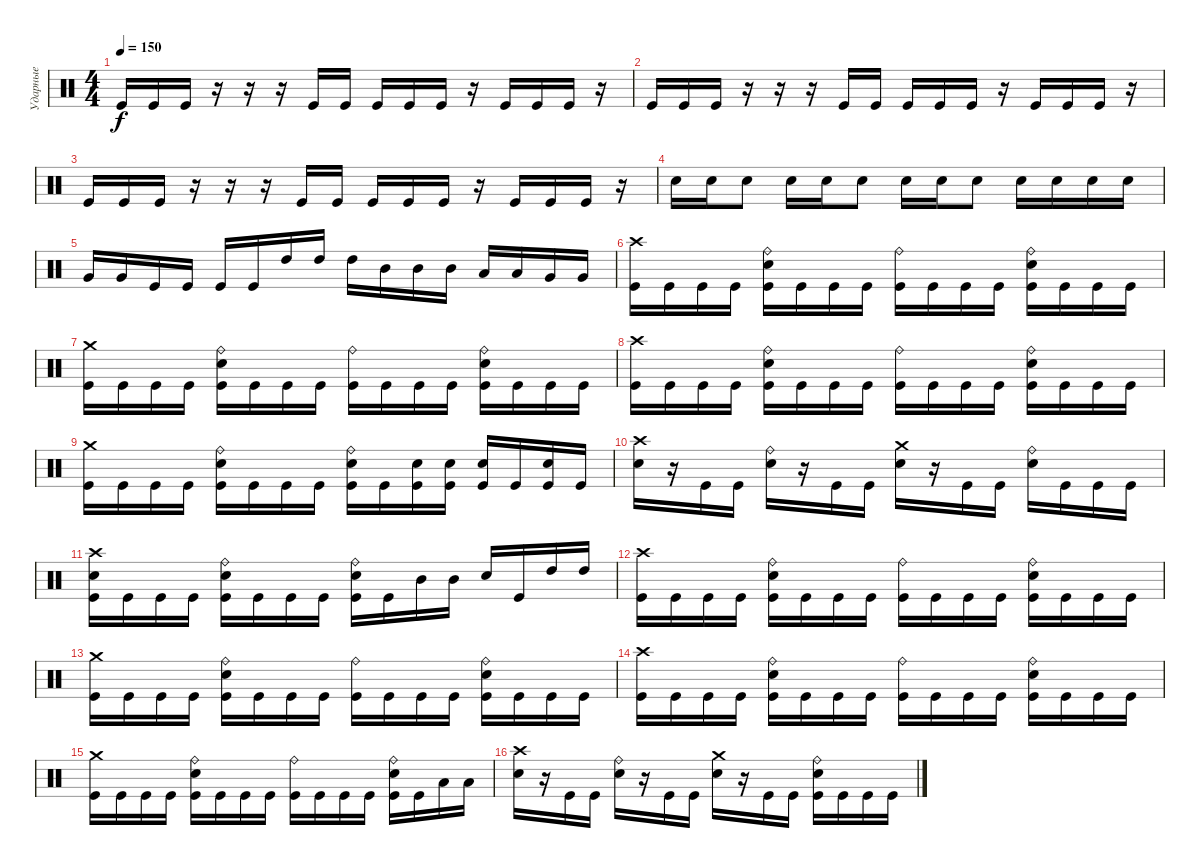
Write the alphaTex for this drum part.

\track ("Ударные" "Ударные") {instrument percussion}
\staff {score}
\articulation defaults
\ts (4 4)
\tempo 150
\clef neutral
\ks c "Kick (hit)".16{dy f} "Kick (hit)".16 "Kick (hit)".16
r.16 r.16 r.16 "Kick (hit)".16 "Kick (hit)".16 "Kick (hit)".16 "Kick (hit)".16 "Kick (hit)".16 r.16 "Kick (hit)".16 "Kick (hit)".16 "Kick (hit)".16 r.16 |
"Kick (hit)".16 "Kick (hit)".16 "Kick (hit)".16 r.16 r.16 r.16 "Kick (hit)".16 "Kick (hit)".16 "Kick (hit)".16 "Kick (hit)".16 "Kick (hit)".16 r.16 "Kick (hit)".16 "Kick (hit)".16 "Kick (hit)".16 r.16 |
"Kick (hit)".16 "Kick (hit)".16 "Kick (hit)".16 r.16 r.16 r.16 "Kick (hit)".16 "Kick (hit)".16 "Kick (hit)".16 "Kick (hit)".16 "Kick (hit)".16 r.16 "Kick (hit)".16 "Kick (hit)".16 "Kick (hit)".16 r.16 |
"Electric Snare (hit)".16 "Electric Snare (hit)".16 "Electric Snare (hit)".8 "Electric Snare (hit)".16 "Electric Snare (hit)".16 "Electric Snare (hit)".8 "Electric Snare (hit)".16 "Electric Snare (hit)".16 "Electric Snare (hit)".8 "Electric Snare (hit)".16 "Electric Snare (hit)".16 "Electric Snare (hit)".16 "Electric Snare (hit)".16 |
"Very Low Tom (hit)".16 "Very Low Tom (hit)".16 "Kick (hit)".16 "Kick (hit)".16 "Kick (hit)".16 "Kick (hit)".16 "High Tom (hit)".16 "High Tom (hit)".16 "High Tom (hit)".16 "Mid Tom (hit)".16 "Mid Tom (hit)".16 "Mid Tom (hit)".16 "Low Tom (hit)".16 "Low Tom (hit)".16 "Very Low Tom (hit)".16 "Very Low Tom (hit)".16 |
("Crash high (hit)" "Kick (hit)").16 "Kick (hit)".16 "Kick (hit)".16 "Kick (hit)".16 ("Ride (bell)" "Electric Snare (hit)" "Kick (hit)").16 "Kick (hit)".16 "Kick (hit)".16 "Kick (hit)".16 ("Ride (bell)" "Kick (hit)").16 "Kick (hit)".16 "Kick (hit)".16 "Kick (hit)".16 ("Ride (bell)" "Electric Snare (hit)" "Kick (hit)").16 "Kick (hit)".16 "Kick (hit)".16 "Kick (hit)".16 |
("Crash medium (hit)" "Kick (hit)").16 "Kick (hit)".16 "Kick (hit)".16 "Kick (hit)".16 ("Ride (bell)" "Electric Snare (hit)" "Kick (hit)").16 "Kick (hit)".16 "Kick (hit)".16 "Kick (hit)".16 ("Ride (bell)" "Kick (hit)").16 "Kick (hit)".16 "Kick (hit)".16 "Kick (hit)".16 ("Ride (bell)" "Electric Snare (hit)" "Kick (hit)").16 "Kick (hit)".16 "Kick (hit)".16 "Kick (hit)".16 |
("Crash high (hit)" "Kick (hit)").16 "Kick (hit)".16 "Kick (hit)".16 "Kick (hit)".16 ("Ride (bell)" "Electric Snare (hit)" "Kick (hit)").16 "Kick (hit)".16 "Kick (hit)".16 "Kick (hit)".16 ("Ride (bell)" "Kick (hit)").16 "Kick (hit)".16 "Kick (hit)".16 "Kick (hit)".16 ("Ride (bell)" "Electric Snare (hit)" "Kick (hit)").16 "Kick (hit)".16 "Kick (hit)".16 "Kick (hit)".16 |
("Crash medium (hit)" "Kick (hit)").16 "Kick (hit)".16 "Kick (hit)".16 "Kick (hit)".16 ("Ride (bell)" "Electric Snare (hit)" "Kick (hit)").16 "Kick (hit)".16 "Kick (hit)".16 "Kick (hit)".16 ("Ride (bell)" "Electric Snare (hit)" "Kick (hit)").16 "Kick (hit)".16 ("Electric Snare (hit)" "Kick (hit)").16 ("Electric Snare (hit)" "Kick (hit)").16 ("Electric Snare (hit)" "Kick (hit)").16 "Kick (hit)".16 ("Electric Snare (hit)" "Kick (hit)").16 "Kick (hit)".16 |
("Crash high (hit)" "Electric Snare (hit)").16 r.16 "Kick (hit)".16 "Kick (hit)".16 ("Ride (bell)" "Electric Snare (hit)").16 r.16 "Kick (hit)".16 "Kick (hit)".16 ("Crash medium (hit)" "Electric Snare (hit)").16 r.16 "Kick (hit)".16 "Kick (hit)".16 ("Ride (bell)" "Electric Snare (hit)").16 "Kick (hit)".16 "Kick (hit)".16 "Kick (hit)".16 |
("Crash high (hit)" "Electric Snare (hit)" "Kick (hit)").16 "Kick (hit)".16 "Kick (hit)".16 "Kick (hit)".16 ("Ride (bell)" "Electric Snare (hit)" "Kick (hit)").16 "Kick (hit)".16 "Kick (hit)".16 "Kick (hit)".16 ("Ride (bell)" "Electric Snare (hit)" "Kick (hit)").16 "Kick (hit)".16 "Mid Tom (hit)".16 "Mid Tom (hit)".16 "Electric Snare (hit)".16 "Kick (hit)".16 "High Tom (hit)".16 "High Tom (hit)".16 |
("Crash high (hit)" "Kick (hit)").16 "Kick (hit)".16 "Kick (hit)".16 "Kick (hit)".16 ("Ride (bell)" "Electric Snare (hit)" "Kick (hit)").16 "Kick (hit)".16 "Kick (hit)".16 "Kick (hit)".16 ("Ride (bell)" "Kick (hit)").16 "Kick (hit)".16 "Kick (hit)".16 "Kick (hit)".16 ("Ride (bell)" "Electric Snare (hit)" "Kick (hit)").16 "Kick (hit)".16 "Kick (hit)".16 "Kick (hit)".16 |
("Crash medium (hit)" "Kick (hit)").16 "Kick (hit)".16 "Kick (hit)".16 "Kick (hit)".16 ("Ride (bell)" "Electric Snare (hit)" "Kick (hit)").16 "Kick (hit)".16 "Kick (hit)".16 "Kick (hit)".16 ("Ride (bell)" "Kick (hit)").16 "Kick (hit)".16 "Kick (hit)".16 "Kick (hit)".16 ("Ride (bell)" "Electric Snare (hit)" "Kick (hit)").16 "Kick (hit)".16 "Kick (hit)".16 "Kick (hit)".16 |
("Crash high (hit)" "Kick (hit)").16 "Kick (hit)".16 "Kick (hit)".16 "Kick (hit)".16 ("Ride (bell)" "Electric Snare (hit)" "Kick (hit)").16 "Kick (hit)".16 "Kick (hit)".16 "Kick (hit)".16 ("Ride (bell)" "Kick (hit)").16 "Kick (hit)".16 "Kick (hit)".16 "Kick (hit)".16 ("Ride (bell)" "Electric Snare (hit)" "Kick (hit)").16 "Kick (hit)".16 "Kick (hit)".16 "Kick (hit)".16 |
("Crash medium (hit)" "Kick (hit)").16 "Kick (hit)".16 "Kick (hit)".16 "Kick (hit)".16 ("Ride (bell)" "Electric Snare (hit)" "Kick (hit)").16 "Kick (hit)".16 "Kick (hit)".16 "Kick (hit)".16 ("Ride (bell)" "Kick (hit)").16 "Kick (hit)".16 "Kick (hit)".16 "Kick (hit)".16 ("Ride (bell)" "Electric Snare (hit)" "Kick (hit)").16 "Kick (hit)".16 "Low Tom (hit)".16 "Low Tom (hit)".16 |
("Crash high (hit)" "Electric Snare (hit)").16 r.16 "Kick (hit)".16 "Kick (hit)".16 ("Ride (bell)" "Electric Snare (hit)").16 r.16 "Kick (hit)".16 "Kick (hit)".16 ("Crash medium (hit)" "Electric Snare (hit)").16 r.16 "Kick (hit)".16 "Kick (hit)".16 ("Ride (bell)" "Electric Snare (hit)" "Kick (hit)").16 "Kick (hit)".16 "Kick (hit)".16 "Kick (hit)".16
